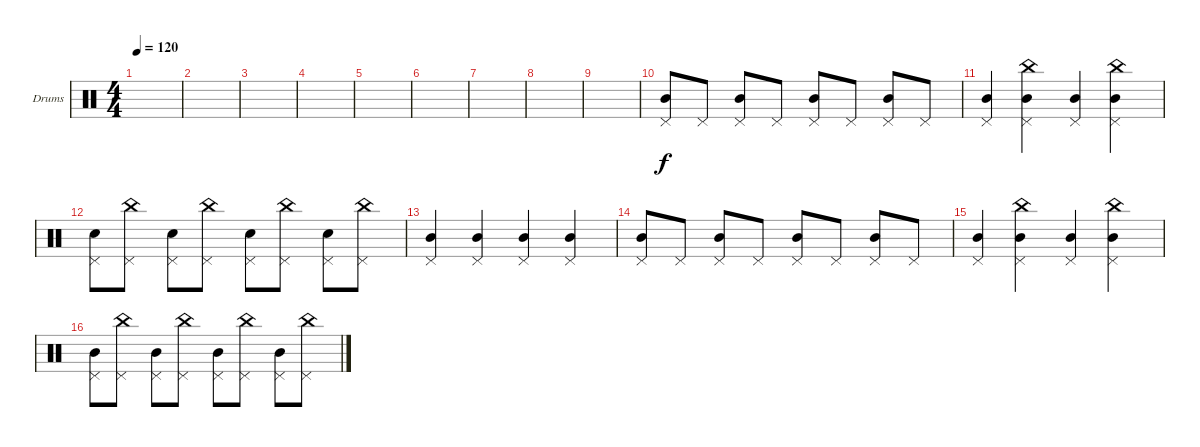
\defaultSystemsLayout 4
\bracketExtendMode groupsimilarinstruments
\firstSystemTrackNameOrientation horizontal
\otherSystemsTrackNameOrientation horizontal
\track ("Drumkit" "Drums") {mute instrument percussion}
\staff {score}
\articulation defaults
\ts (4 4)
\tempo 120
\clef neutral
\scale
0.474178
\ks c
|
\scale
0.262911 |
\scale
0.262911 |
\scale
0.333333 |
\scale
0.333333 |
\scale
0.333333 |
\scale
0.333333 |
\scale
0.333333 |
\scale
0.333333 |
\scale
0.333333 ("Pedal Hi-Hat (hit)" "Mid Tom (hit)").8 "Pedal Hi-Hat (hit)".8 ("Pedal Hi-Hat (hit)" "Mid Tom (hit)").8 "Pedal Hi-Hat (hit)".8 ("Pedal Hi-Hat (hit)" "Mid Tom (hit)").8 "Pedal Hi-Hat (hit)".8 ("Pedal Hi-Hat (hit)" "Mid Tom (hit)").8 "Pedal Hi-Hat (hit)".8 |
\scale
0.333333 ("Pedal Hi-Hat (hit)" "Mid Tom (hit)").4 ("Pedal Hi-Hat (hit)" "China (hit)" "Mid Tom (hit)").4 ("Pedal Hi-Hat (hit)" "Mid Tom (hit)").4 ("Pedal Hi-Hat (hit)" "China (hit)" "Mid Tom (hit)").4 |
\scale
0.333333 ("Pedal Hi-Hat (hit)" "Snare (hit) 2").8 ("Pedal Hi-Hat (hit)" "China (hit)").8 ("Pedal Hi-Hat (hit)" "Snare (hit) 2").8 ("Pedal Hi-Hat (hit)" "China (hit)").8 ("Pedal Hi-Hat (hit)" "Snare (hit) 2").8 ("Pedal Hi-Hat (hit)" "China (hit)").8 ("Pedal Hi-Hat (hit)" "Snare (hit) 2").8 ("Pedal Hi-Hat (hit)" "China (hit)").8 |
\scale
0.333333 ("Pedal Hi-Hat (hit)" "Mid Tom (hit)").4 ("Pedal Hi-Hat (hit)" "Mid Tom (hit)").4 ("Pedal Hi-Hat (hit)" "Mid Tom (hit)").4 ("Pedal Hi-Hat (hit)" "Mid Tom (hit)").4 |
\scale
0.333333 ("Pedal Hi-Hat (hit)" "Mid Tom (hit)").8 "Pedal Hi-Hat (hit)".8 ("Pedal Hi-Hat (hit)" "Mid Tom (hit)").8 "Pedal Hi-Hat (hit)".8 ("Pedal Hi-Hat (hit)" "Mid Tom (hit)").8 "Pedal Hi-Hat (hit)".8 ("Pedal Hi-Hat (hit)" "Mid Tom (hit)").8 "Pedal Hi-Hat (hit)".8 |
\scale
0.333333 ("Pedal Hi-Hat (hit)" "Mid Tom (hit)").4 ("Pedal Hi-Hat (hit)" "China (hit)" "Mid Tom (hit)").4 ("Pedal Hi-Hat (hit)" "Mid Tom (hit)").4 ("Pedal Hi-Hat (hit)" "China (hit)" "Mid Tom (hit)").4 |
\scale
0.333333 ("Pedal Hi-Hat (hit)" "Mid Tom (hit)").8 ("Pedal Hi-Hat (hit)" "China (hit)").8 ("Pedal Hi-Hat (hit)" "Mid Tom (hit)").8 ("Pedal Hi-Hat (hit)" "China (hit)").8 ("Pedal Hi-Hat (hit)" "Mid Tom (hit)").8 ("Pedal Hi-Hat (hit)" "China (hit)").8 ("Pedal Hi-Hat (hit)" "Mid Tom (hit)").8 ("Pedal Hi-Hat (hit)" "China (hit)").8
